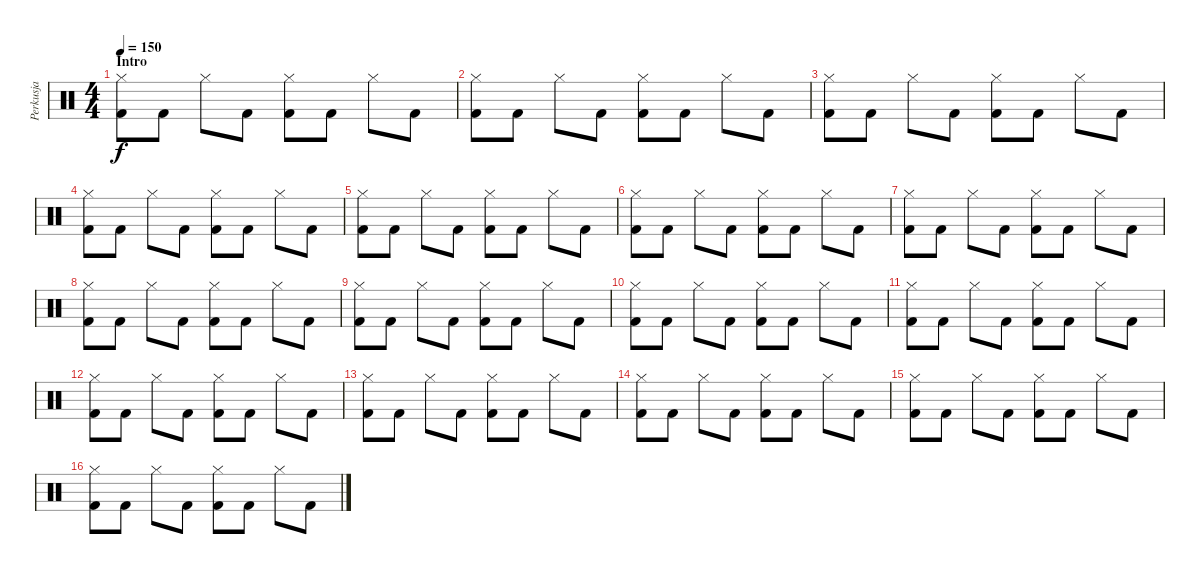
\track ("Perkusja" "Perkusja") {instrument percussion}
\staff {score}
\articulation defaults
\ts (4 4)
\section ("" "Intro")
\tempo 150
\clef neutral
\ks c
("Hi-Hat (closed)" "Kick (hit) 2").8{dy f} "Kick (hit) 2".8 "Hi-Hat (closed)".8 "Kick (hit) 2".8 ("Hi-Hat (closed)" "Kick (hit) 2").8 "Kick (hit) 2".8 "Hi-Hat (closed)".8 "Kick (hit) 2".8 |
("Hi-Hat (closed)" "Kick (hit) 2").8 "Kick (hit) 2".8 "Hi-Hat (closed)".8 "Kick (hit) 2".8 ("Hi-Hat (closed)" "Kick (hit) 2").8 "Kick (hit) 2".8 "Hi-Hat (closed)".8 "Kick (hit) 2".8 |
("Hi-Hat (closed)" "Kick (hit) 2").8 "Kick (hit) 2".8 "Hi-Hat (closed)".8 "Kick (hit) 2".8 ("Hi-Hat (closed)" "Kick (hit) 2").8 "Kick (hit) 2".8 "Hi-Hat (closed)".8 "Kick (hit) 2".8 |
("Hi-Hat (closed)" "Kick (hit) 2").8 "Kick (hit) 2".8 "Hi-Hat (closed)".8 "Kick (hit) 2".8 ("Hi-Hat (closed)" "Kick (hit) 2").8 "Kick (hit) 2".8 "Hi-Hat (closed)".8 "Kick (hit) 2".8 |
("Hi-Hat (closed)" "Kick (hit) 2").8 "Kick (hit) 2".8 "Hi-Hat (closed)".8 "Kick (hit) 2".8 ("Hi-Hat (closed)" "Kick (hit) 2").8 "Kick (hit) 2".8 "Hi-Hat (closed)".8 "Kick (hit) 2".8 |
("Hi-Hat (closed)" "Kick (hit) 2").8 "Kick (hit) 2".8 "Hi-Hat (closed)".8 "Kick (hit) 2".8 ("Hi-Hat (closed)" "Kick (hit) 2").8 "Kick (hit) 2".8 "Hi-Hat (closed)".8 "Kick (hit) 2".8 |
("Hi-Hat (closed)" "Kick (hit) 2").8 "Kick (hit) 2".8 "Hi-Hat (closed)".8 "Kick (hit) 2".8 ("Hi-Hat (closed)" "Kick (hit) 2").8 "Kick (hit) 2".8 "Hi-Hat (closed)".8 "Kick (hit) 2".8 |
("Hi-Hat (closed)" "Kick (hit) 2").8 "Kick (hit) 2".8 "Hi-Hat (closed)".8 "Kick (hit) 2".8 ("Hi-Hat (closed)" "Kick (hit) 2").8 "Kick (hit) 2".8 "Hi-Hat (closed)".8 "Kick (hit) 2".8 |
("Hi-Hat (closed)" "Kick (hit) 2").8 "Kick (hit) 2".8 "Hi-Hat (closed)".8 "Kick (hit) 2".8 ("Hi-Hat (closed)" "Kick (hit) 2").8 "Kick (hit) 2".8 "Hi-Hat (closed)".8 "Kick (hit) 2".8 |
("Hi-Hat (closed)" "Kick (hit) 2").8 "Kick (hit) 2".8 "Hi-Hat (closed)".8 "Kick (hit) 2".8 ("Hi-Hat (closed)" "Kick (hit) 2").8 "Kick (hit) 2".8 "Hi-Hat (closed)".8 "Kick (hit) 2".8 |
("Hi-Hat (closed)" "Kick (hit) 2").8 "Kick (hit) 2".8 "Hi-Hat (closed)".8 "Kick (hit) 2".8 ("Hi-Hat (closed)" "Kick (hit) 2").8 "Kick (hit) 2".8 "Hi-Hat (closed)".8 "Kick (hit) 2".8 |
("Hi-Hat (closed)" "Kick (hit) 2").8 "Kick (hit) 2".8 "Hi-Hat (closed)".8 "Kick (hit) 2".8 ("Hi-Hat (closed)" "Kick (hit) 2").8 "Kick (hit) 2".8 "Hi-Hat (closed)".8 "Kick (hit) 2".8 |
("Hi-Hat (closed)" "Kick (hit) 2").8 "Kick (hit) 2".8 "Hi-Hat (closed)".8 "Kick (hit) 2".8 ("Hi-Hat (closed)" "Kick (hit) 2").8 "Kick (hit) 2".8 "Hi-Hat (closed)".8 "Kick (hit) 2".8 |
("Hi-Hat (closed)" "Kick (hit) 2").8 "Kick (hit) 2".8 "Hi-Hat (closed)".8 "Kick (hit) 2".8 ("Hi-Hat (closed)" "Kick (hit) 2").8 "Kick (hit) 2".8 "Hi-Hat (closed)".8 "Kick (hit) 2".8 |
("Hi-Hat (closed)" "Kick (hit) 2").8 "Kick (hit) 2".8 "Hi-Hat (closed)".8 "Kick (hit) 2".8 ("Hi-Hat (closed)" "Kick (hit) 2").8 "Kick (hit) 2".8 "Hi-Hat (closed)".8 "Kick (hit) 2".8 |
("Hi-Hat (closed)" "Kick (hit) 2").8 "Kick (hit) 2".8 "Hi-Hat (closed)".8 "Kick (hit) 2".8 ("Hi-Hat (closed)" "Kick (hit) 2").8 "Kick (hit) 2".8 "Hi-Hat (closed)".8 "Kick (hit) 2".8
